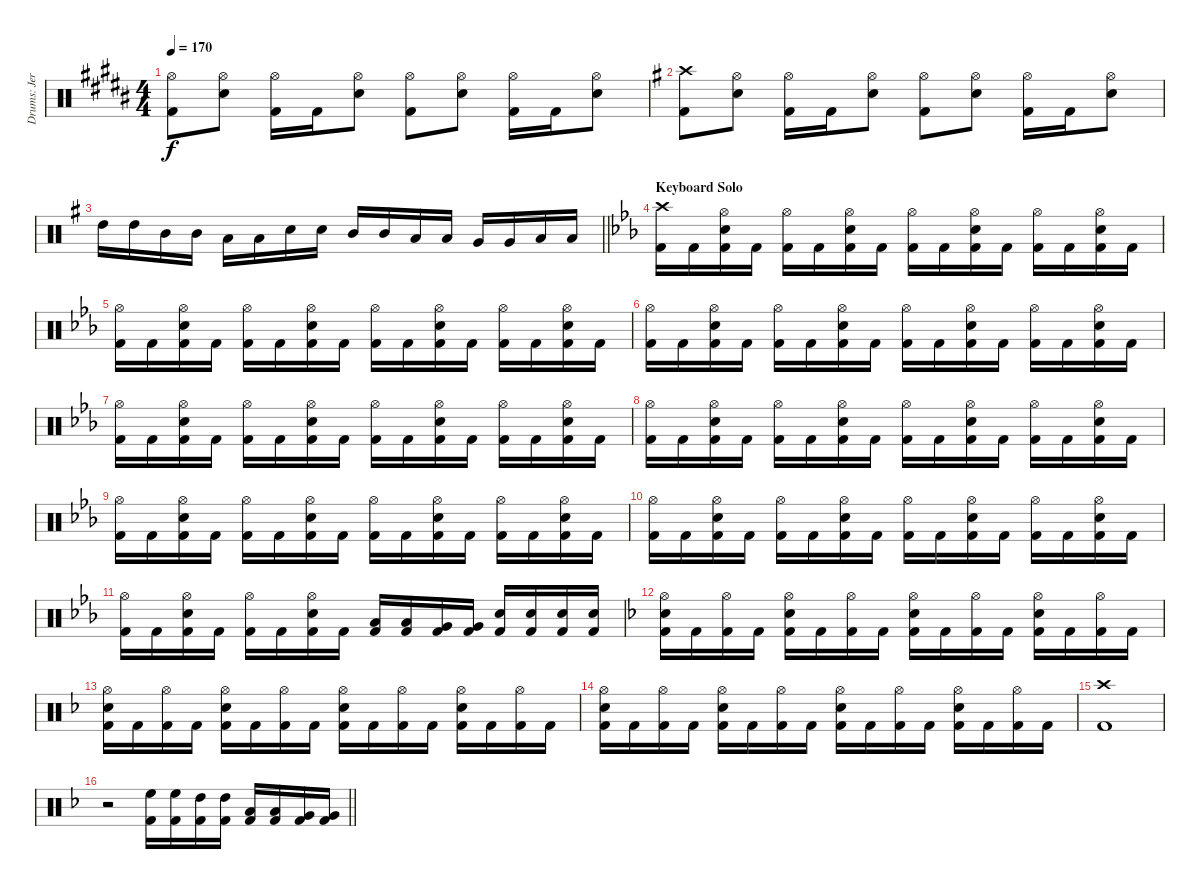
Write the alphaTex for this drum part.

\track ("Drums: Jere Luokkamäki" "Drums: Jer") {instrument percussion}
\staff {score}
\articulation defaults
\ts (4 4)
\tempo 170
\clef neutral
\ks b
("Hi-Hat (open)" "Kick (hit) 2").8{dy f} ("Hi-Hat (open)" "Electric Snare (hit)").8 ("Hi-Hat (open)" "Kick (hit) 2").16 "Kick (hit) 2".16 ("Hi-Hat (open)" "Electric Snare (hit)").8 ("Hi-Hat (open)" "Kick (hit) 2").8 ("Hi-Hat (open)" "Electric Snare (hit)").8 ("Hi-Hat (open)" "Kick (hit) 2").16 "Kick (hit) 2".16 ("Hi-Hat (open)" "Electric Snare (hit)").8 |
\ks eminor
("Crash high (hit)" "Kick (hit) 2").8 ("Hi-Hat (open)" "Electric Snare (hit)").8 ("Hi-Hat (open)" "Kick (hit) 2").16 "Kick (hit) 2".16 ("Hi-Hat (open)" "Electric Snare (hit)").8 ("Hi-Hat (open)" "Kick (hit) 2").8 ("Hi-Hat (open)" "Electric Snare (hit)").8 ("Hi-Hat (open)" "Kick (hit) 2").16 "Kick (hit) 2".16 ("Hi-Hat (open)" "Electric Snare (hit)").8 |
\barLineRight lightlight "High Tom (hit)".16 "High Tom (hit)".16 "Mid Tom (hit)".16 "Mid Tom (hit)".16 "Low Tom (hit)".16 "Low Tom (hit)".16 "Electric Snare (hit)".16 "Electric Snare (hit)".16 "Mid Tom (hit)".16 "Mid Tom (hit)".16 "Low Tom (hit)".16 "Low Tom (hit)".16 "Very Low Tom (hit)".16 "Very Low Tom (hit)".16 "Low Tom (hit)".16 "Low Tom (hit)".16
|
\section ("" "Keyboard Solo")
\ks cminor
("Crash high (hit)" "Kick (hit) 2").16 "Kick (hit) 2".16 ("Hi-Hat (open)" "Electric Snare (hit)" "Kick (hit) 2").16 "Kick (hit) 2".16 ("Hi-Hat (open)" "Kick (hit) 2").16 "Kick (hit) 2".16 ("Hi-Hat (open)" "Electric Snare (hit)" "Kick (hit) 2").16 "Kick (hit) 2".16 ("Hi-Hat (open)" "Kick (hit) 2").16 "Kick (hit) 2".16 ("Hi-Hat (open)" "Electric Snare (hit)" "Kick (hit) 2").16 "Kick (hit) 2".16 ("Hi-Hat (open)" "Kick (hit) 2").16 "Kick (hit) 2".16 ("Hi-Hat (open)" "Electric Snare (hit)" "Kick (hit) 2").16 "Kick (hit) 2".16 |
("Hi-Hat (open)" "Kick (hit) 2").16 "Kick (hit) 2".16 ("Hi-Hat (open)" "Electric Snare (hit)" "Kick (hit) 2").16 "Kick (hit) 2".16 ("Hi-Hat (open)" "Kick (hit) 2").16 "Kick (hit) 2".16 ("Hi-Hat (open)" "Electric Snare (hit)" "Kick (hit) 2").16 "Kick (hit) 2".16 ("Hi-Hat (open)" "Kick (hit) 2").16 "Kick (hit) 2".16 ("Hi-Hat (open)" "Electric Snare (hit)" "Kick (hit) 2").16 "Kick (hit) 2".16 ("Hi-Hat (open)" "Kick (hit) 2").16 "Kick (hit) 2".16 ("Hi-Hat (open)" "Electric Snare (hit)" "Kick (hit) 2").16 "Kick (hit) 2".16 |
("Hi-Hat (open)" "Kick (hit) 2").16 "Kick (hit) 2".16 ("Hi-Hat (open)" "Electric Snare (hit)" "Kick (hit) 2").16 "Kick (hit) 2".16 ("Hi-Hat (open)" "Kick (hit) 2").16 "Kick (hit) 2".16 ("Hi-Hat (open)" "Electric Snare (hit)" "Kick (hit) 2").16 "Kick (hit) 2".16 ("Hi-Hat (open)" "Kick (hit) 2").16 "Kick (hit) 2".16 ("Hi-Hat (open)" "Electric Snare (hit)" "Kick (hit) 2").16 "Kick (hit) 2".16 ("Hi-Hat (open)" "Kick (hit) 2").16 "Kick (hit) 2".16 ("Hi-Hat (open)" "Electric Snare (hit)" "Kick (hit) 2").16 "Kick (hit) 2".16 |
("Hi-Hat (open)" "Kick (hit) 2").16 "Kick (hit) 2".16 ("Hi-Hat (open)" "Electric Snare (hit)" "Kick (hit) 2").16 "Kick (hit) 2".16 ("Hi-Hat (open)" "Kick (hit) 2").16 "Kick (hit) 2".16 ("Hi-Hat (open)" "Electric Snare (hit)" "Kick (hit) 2").16 "Kick (hit) 2".16 ("Hi-Hat (open)" "Kick (hit) 2").16 "Kick (hit) 2".16 ("Hi-Hat (open)" "Electric Snare (hit)" "Kick (hit) 2").16 "Kick (hit) 2".16 ("Hi-Hat (open)" "Kick (hit) 2").16 "Kick (hit) 2".16 ("Hi-Hat (open)" "Electric Snare (hit)" "Kick (hit) 2").16 "Kick (hit) 2".16 |
("Hi-Hat (open)" "Kick (hit) 2").16 "Kick (hit) 2".16 ("Hi-Hat (open)" "Electric Snare (hit)" "Kick (hit) 2").16 "Kick (hit) 2".16 ("Hi-Hat (open)" "Kick (hit) 2").16 "Kick (hit) 2".16 ("Hi-Hat (open)" "Electric Snare (hit)" "Kick (hit) 2").16 "Kick (hit) 2".16 ("Hi-Hat (open)" "Kick (hit) 2").16 "Kick (hit) 2".16 ("Hi-Hat (open)" "Electric Snare (hit)" "Kick (hit) 2").16 "Kick (hit) 2".16 ("Hi-Hat (open)" "Kick (hit) 2").16 "Kick (hit) 2".16 ("Hi-Hat (open)" "Electric Snare (hit)" "Kick (hit) 2").16 "Kick (hit) 2".16 |
("Hi-Hat (open)" "Kick (hit) 2").16 "Kick (hit) 2".16 ("Hi-Hat (open)" "Electric Snare (hit)" "Kick (hit) 2").16 "Kick (hit) 2".16 ("Hi-Hat (open)" "Kick (hit) 2").16 "Kick (hit) 2".16 ("Hi-Hat (open)" "Electric Snare (hit)" "Kick (hit) 2").16 "Kick (hit) 2".16 ("Hi-Hat (open)" "Kick (hit) 2").16 "Kick (hit) 2".16 ("Hi-Hat (open)" "Electric Snare (hit)" "Kick (hit) 2").16 "Kick (hit) 2".16 ("Hi-Hat (open)" "Kick (hit) 2").16 "Kick (hit) 2".16 ("Hi-Hat (open)" "Electric Snare (hit)" "Kick (hit) 2").16 "Kick (hit) 2".16 |
("Hi-Hat (open)" "Kick (hit) 2").16 "Kick (hit) 2".16 ("Hi-Hat (open)" "Electric Snare (hit)" "Kick (hit) 2").16 "Kick (hit) 2".16 ("Hi-Hat (open)" "Kick (hit) 2").16 "Kick (hit) 2".16 ("Hi-Hat (open)" "Electric Snare (hit)" "Kick (hit) 2").16 "Kick (hit) 2".16 ("Hi-Hat (open)" "Kick (hit) 2").16 "Kick (hit) 2".16 ("Hi-Hat (open)" "Electric Snare (hit)" "Kick (hit) 2").16 "Kick (hit) 2".16 ("Hi-Hat (open)" "Kick (hit) 2").16 "Kick (hit) 2".16 ("Hi-Hat (open)" "Electric Snare (hit)" "Kick (hit) 2").16 "Kick (hit) 2".16 |
("Hi-Hat (open)" "Kick (hit) 2").16 "Kick (hit) 2".16 ("Hi-Hat (open)" "Electric Snare (hit)" "Kick (hit) 2").16 "Kick (hit) 2".16 ("Hi-Hat (open)" "Kick (hit) 2").16 "Kick (hit) 2".16 ("Hi-Hat (open)" "Electric Snare (hit)" "Kick (hit) 2").16 "Kick (hit) 2".16 ("Low Tom (hit)" "Kick (hit) 2").16 ("Low Tom (hit)" "Kick (hit) 2").16 ("Very Low Tom (hit)" "Kick (hit) 2").16 ("Very Low Tom (hit)" "Kick (hit) 2").16 ("Electric Snare (hit)" "Kick (hit) 2").16 ("Electric Snare (hit)" "Kick (hit) 2").16 ("Electric Snare (hit)" "Kick (hit) 2").16 ("Electric Snare (hit)" "Kick (hit) 2").16 |
\ks f
("Hi-Hat (open)" "Electric Snare (hit)" "Kick (hit) 2").16 "Kick (hit) 2".16 ("Hi-Hat (open)" "Kick (hit) 2").16 "Kick (hit) 2".16 ("Hi-Hat (open)" "Electric Snare (hit)" "Kick (hit) 2").16 "Kick (hit) 2".16 ("Hi-Hat (open)" "Kick (hit) 2").16 "Kick (hit) 2".16 ("Hi-Hat (open)" "Electric Snare (hit)" "Kick (hit) 2").16 "Kick (hit) 2".16 ("Hi-Hat (open)" "Kick (hit) 2").16 "Kick (hit) 2".16 ("Hi-Hat (open)" "Electric Snare (hit)" "Kick (hit) 2").16 "Kick (hit) 2".16 ("Hi-Hat (open)" "Kick (hit) 2").16 "Kick (hit) 2".16 |
("Hi-Hat (open)" "Electric Snare (hit)" "Kick (hit) 2").16 "Kick (hit) 2".16 ("Hi-Hat (open)" "Kick (hit) 2").16 "Kick (hit) 2".16 ("Hi-Hat (open)" "Electric Snare (hit)" "Kick (hit) 2").16 "Kick (hit) 2".16 ("Hi-Hat (open)" "Kick (hit) 2").16 "Kick (hit) 2".16 ("Hi-Hat (open)" "Electric Snare (hit)" "Kick (hit) 2").16 "Kick (hit) 2".16 ("Hi-Hat (open)" "Kick (hit) 2").16 "Kick (hit) 2".16 ("Hi-Hat (open)" "Electric Snare (hit)" "Kick (hit) 2").16 "Kick (hit) 2".16 ("Hi-Hat (open)" "Kick (hit) 2").16 "Kick (hit) 2".16 |
("Hi-Hat (open)" "Electric Snare (hit)" "Kick (hit) 2").16 "Kick (hit) 2".16 ("Hi-Hat (open)" "Kick (hit) 2").16 "Kick (hit) 2".16 ("Hi-Hat (open)" "Electric Snare (hit)" "Kick (hit) 2").16 "Kick (hit) 2".16 ("Hi-Hat (open)" "Kick (hit) 2").16 "Kick (hit) 2".16 ("Hi-Hat (open)" "Electric Snare (hit)" "Kick (hit) 2").16 "Kick (hit) 2".16 ("Hi-Hat (open)" "Kick (hit) 2").16 "Kick (hit) 2".16 ("Hi-Hat (open)" "Electric Snare (hit)" "Kick (hit) 2").16 "Kick (hit) 2".16 ("Hi-Hat (open)" "Kick (hit) 2").16 "Kick (hit) 2".16 |
("Crash high (hit)" "Kick (hit) 2").1 |
\barLineRight lightlight
r.2 ("High Floor Tom (hit)" "Kick (hit) 2").16 ("High Floor Tom (hit)" "Kick (hit) 2").16 ("High Tom (hit)" "Kick (hit) 2").16 ("High Tom (hit)" "Kick (hit) 2").16 ("Low Tom (hit)" "Kick (hit) 2").16 ("Low Tom (hit)" "Kick (hit) 2").16 ("Very Low Tom (hit)" "Kick (hit) 2").16 ("Very Low Tom (hit)" "Kick (hit) 2").16
